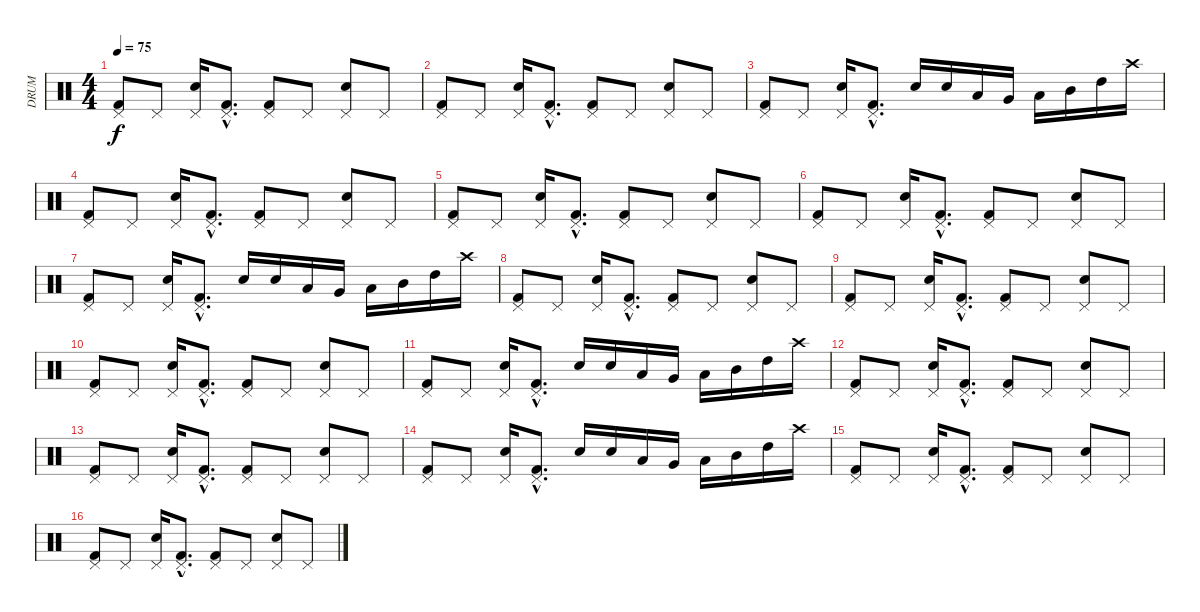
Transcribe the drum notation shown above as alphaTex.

\track ("DRUM" "DRUM") {instrument percussion}
\staff {score}
\articulation defaults
\ts (4 4)
\tempo 75
\clef neutral
\ks c
("Kick (hit) 2" "Pedal Hi-Hat (hit)").8{dy f} "Pedal Hi-Hat (hit)".8 ("Electric Snare (hit)" "Pedal Hi-Hat (hit)").16 ("Kick (hit) 2"{hac} "Pedal Hi-Hat (hit)"{hac}).8{d} ("Kick (hit) 2" "Pedal Hi-Hat (hit)").8 "Pedal Hi-Hat (hit)".8 ("Electric Snare (hit)" "Pedal Hi-Hat (hit)").8 "Pedal Hi-Hat (hit)".8 |
("Kick (hit) 2" "Pedal Hi-Hat (hit)").8 "Pedal Hi-Hat (hit)".8 ("Electric Snare (hit)" "Pedal Hi-Hat (hit)").16 ("Kick (hit) 2"{hac} "Pedal Hi-Hat (hit)"{hac}).8{d} ("Kick (hit) 2" "Pedal Hi-Hat (hit)").8 "Pedal Hi-Hat (hit)".8 ("Electric Snare (hit)" "Pedal Hi-Hat (hit)").8 "Pedal Hi-Hat (hit)".8 |
("Kick (hit) 2" "Pedal Hi-Hat (hit)").8 "Pedal Hi-Hat (hit)".8 ("Electric Snare (hit)" "Pedal Hi-Hat (hit)").16 ("Kick (hit) 2"{hac} "Pedal Hi-Hat (hit)"{hac}).8{d} "Electric Snare (hit)".16 "Electric Snare (hit)".16 "Low Floor Tom (hit)".16 "Very Low Tom (hit)".16 "Low Tom (hit)".16 "Mid Tom (hit)".16 "High Tom (hit)".16 "Crash high (hit)".16 |
("Kick (hit) 2" "Pedal Hi-Hat (hit)").8 "Pedal Hi-Hat (hit)".8 ("Electric Snare (hit)" "Pedal Hi-Hat (hit)").16 ("Kick (hit) 2"{hac} "Pedal Hi-Hat (hit)"{hac}).8{d} ("Kick (hit) 2" "Pedal Hi-Hat (hit)").8 "Pedal Hi-Hat (hit)".8 ("Electric Snare (hit)" "Pedal Hi-Hat (hit)").8 "Pedal Hi-Hat (hit)".8 |
("Kick (hit) 2" "Pedal Hi-Hat (hit)").8 "Pedal Hi-Hat (hit)".8 ("Electric Snare (hit)" "Pedal Hi-Hat (hit)").16 ("Kick (hit) 2"{hac} "Pedal Hi-Hat (hit)"{hac}).8{d} ("Kick (hit) 2" "Pedal Hi-Hat (hit)").8 "Pedal Hi-Hat (hit)".8 ("Electric Snare (hit)" "Pedal Hi-Hat (hit)").8 "Pedal Hi-Hat (hit)".8 |
("Kick (hit) 2" "Pedal Hi-Hat (hit)").8 "Pedal Hi-Hat (hit)".8 ("Electric Snare (hit)" "Pedal Hi-Hat (hit)").16 ("Kick (hit) 2"{hac} "Pedal Hi-Hat (hit)"{hac}).8{d} ("Kick (hit) 2" "Pedal Hi-Hat (hit)").8 "Pedal Hi-Hat (hit)".8 ("Electric Snare (hit)" "Pedal Hi-Hat (hit)").8 "Pedal Hi-Hat (hit)".8 |
("Kick (hit) 2" "Pedal Hi-Hat (hit)").8 "Pedal Hi-Hat (hit)".8 ("Electric Snare (hit)" "Pedal Hi-Hat (hit)").16 ("Kick (hit) 2"{hac} "Pedal Hi-Hat (hit)"{hac}).8{d} "Electric Snare (hit)".16 "Electric Snare (hit)".16 "Low Floor Tom (hit)".16 "Very Low Tom (hit)".16 "Low Tom (hit)".16 "Mid Tom (hit)".16 "High Tom (hit)".16 "Crash high (hit)".16 |
("Kick (hit) 2" "Pedal Hi-Hat (hit)").8 "Pedal Hi-Hat (hit)".8 ("Electric Snare (hit)" "Pedal Hi-Hat (hit)").16 ("Kick (hit) 2"{hac} "Pedal Hi-Hat (hit)"{hac}).8{d} ("Kick (hit) 2" "Pedal Hi-Hat (hit)").8 "Pedal Hi-Hat (hit)".8 ("Electric Snare (hit)" "Pedal Hi-Hat (hit)").8 "Pedal Hi-Hat (hit)".8 |
("Kick (hit) 2" "Pedal Hi-Hat (hit)").8 "Pedal Hi-Hat (hit)".8 ("Electric Snare (hit)" "Pedal Hi-Hat (hit)").16 ("Kick (hit) 2"{hac} "Pedal Hi-Hat (hit)"{hac}).8{d} ("Kick (hit) 2" "Pedal Hi-Hat (hit)").8 "Pedal Hi-Hat (hit)".8 ("Electric Snare (hit)" "Pedal Hi-Hat (hit)").8 "Pedal Hi-Hat (hit)".8 |
("Kick (hit) 2" "Pedal Hi-Hat (hit)").8 "Pedal Hi-Hat (hit)".8 ("Electric Snare (hit)" "Pedal Hi-Hat (hit)").16 ("Kick (hit) 2"{hac} "Pedal Hi-Hat (hit)"{hac}).8{d} ("Kick (hit) 2" "Pedal Hi-Hat (hit)").8 "Pedal Hi-Hat (hit)".8 ("Electric Snare (hit)" "Pedal Hi-Hat (hit)").8 "Pedal Hi-Hat (hit)".8 |
("Kick (hit) 2" "Pedal Hi-Hat (hit)").8 "Pedal Hi-Hat (hit)".8 ("Electric Snare (hit)" "Pedal Hi-Hat (hit)").16 ("Kick (hit) 2"{hac} "Pedal Hi-Hat (hit)"{hac}).8{d} "Electric Snare (hit)".16 "Electric Snare (hit)".16 "Low Floor Tom (hit)".16 "Very Low Tom (hit)".16 "Low Tom (hit)".16 "Mid Tom (hit)".16 "High Tom (hit)".16 "Crash high (hit)".16 |
("Kick (hit) 2" "Pedal Hi-Hat (hit)").8 "Pedal Hi-Hat (hit)".8 ("Electric Snare (hit)" "Pedal Hi-Hat (hit)").16 ("Kick (hit) 2"{hac} "Pedal Hi-Hat (hit)"{hac}).8{d} ("Kick (hit) 2" "Pedal Hi-Hat (hit)").8 "Pedal Hi-Hat (hit)".8 ("Electric Snare (hit)" "Pedal Hi-Hat (hit)").8 "Pedal Hi-Hat (hit)".8 |
("Kick (hit) 2" "Pedal Hi-Hat (hit)").8 "Pedal Hi-Hat (hit)".8 ("Electric Snare (hit)" "Pedal Hi-Hat (hit)").16 ("Kick (hit) 2"{hac} "Pedal Hi-Hat (hit)"{hac}).8{d} ("Kick (hit) 2" "Pedal Hi-Hat (hit)").8 "Pedal Hi-Hat (hit)".8 ("Electric Snare (hit)" "Pedal Hi-Hat (hit)").8 "Pedal Hi-Hat (hit)".8 |
("Kick (hit) 2" "Pedal Hi-Hat (hit)").8 "Pedal Hi-Hat (hit)".8 ("Electric Snare (hit)" "Pedal Hi-Hat (hit)").16 ("Kick (hit) 2"{hac} "Pedal Hi-Hat (hit)"{hac}).8{d} "Electric Snare (hit)".16 "Electric Snare (hit)".16 "Low Floor Tom (hit)".16 "Very Low Tom (hit)".16 "Low Tom (hit)".16 "Mid Tom (hit)".16 "High Tom (hit)".16 "Crash high (hit)".16 |
("Kick (hit) 2" "Pedal Hi-Hat (hit)").8 "Pedal Hi-Hat (hit)".8 ("Electric Snare (hit)" "Pedal Hi-Hat (hit)").16 ("Kick (hit) 2"{hac} "Pedal Hi-Hat (hit)"{hac}).8{d} ("Kick (hit) 2" "Pedal Hi-Hat (hit)").8 "Pedal Hi-Hat (hit)".8 ("Electric Snare (hit)" "Pedal Hi-Hat (hit)").8 "Pedal Hi-Hat (hit)".8 |
("Kick (hit) 2" "Pedal Hi-Hat (hit)").8 "Pedal Hi-Hat (hit)".8 ("Electric Snare (hit)" "Pedal Hi-Hat (hit)").16 ("Kick (hit) 2"{hac} "Pedal Hi-Hat (hit)"{hac}).8{d} ("Kick (hit) 2" "Pedal Hi-Hat (hit)").8 "Pedal Hi-Hat (hit)".8 ("Electric Snare (hit)" "Pedal Hi-Hat (hit)").8 "Pedal Hi-Hat (hit)".8
